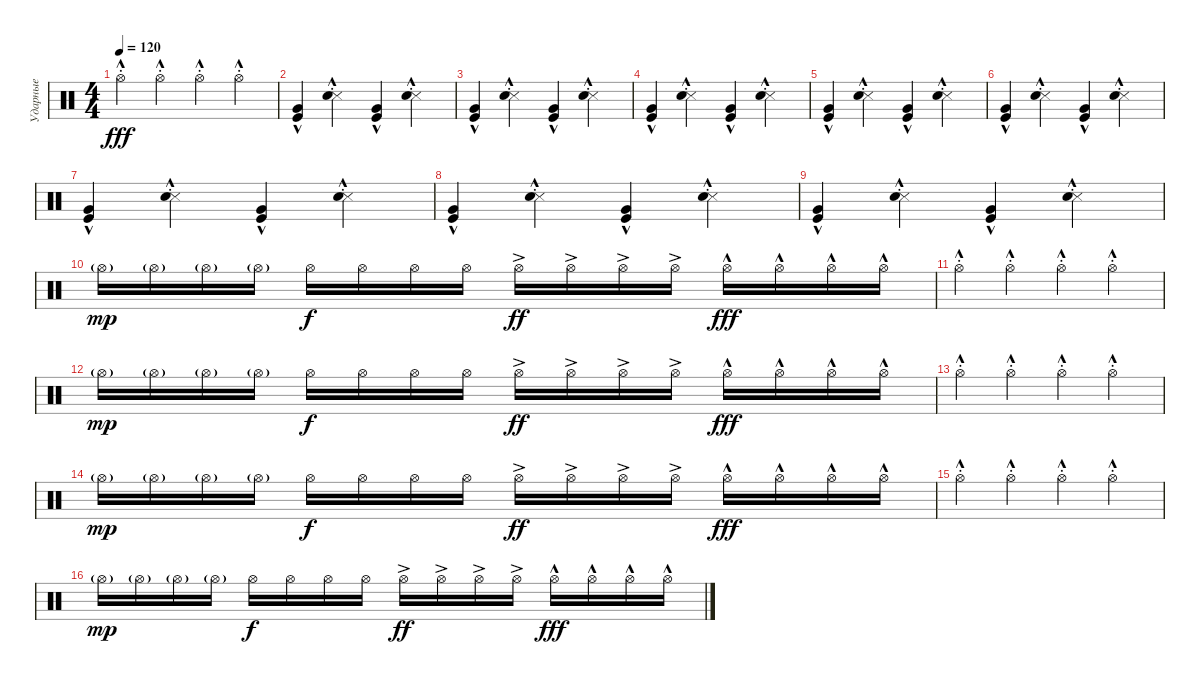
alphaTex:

\track ("Ударные" "Ударные") {instrument percussion}
\staff {score}
\articulation defaults
\ts (4 4)
\tempo 120
\clef neutral
\ks c "Hi-Hat (open)"{hac st}.4{dy fff} "Hi-Hat (open)"{hac st}.4 "Hi-Hat (open)"{hac st}.4 "Hi-Hat (open)"{hac st}.4
|
("Kick (hit)"{hac} "Very Low Tom (hit)"{hac}).4 ("Snare (side stick) 3"{hac st} "Snare (hit) 2"{hac}).4 ("Kick (hit)"{hac} "Very Low Tom (hit)"{hac}).4 ("Snare (side stick) 3"{hac st} "Snare (hit) 2"{hac}).4 |
("Kick (hit)"{hac} "Very Low Tom (hit)"{hac}).4 ("Snare (side stick) 3"{hac st} "Snare (hit) 2"{hac}).4 ("Kick (hit)"{hac} "Very Low Tom (hit)"{hac}).4 ("Snare (side stick) 3"{hac st} "Snare (hit) 2"{hac}).4 |
("Kick (hit)"{hac} "Very Low Tom (hit)"{hac}).4 ("Snare (side stick) 3"{hac st} "Snare (hit) 2"{hac}).4 ("Kick (hit)"{hac} "Very Low Tom (hit)"{hac}).4 ("Snare (side stick) 3"{hac st} "Snare (hit) 2"{hac}).4 |
("Kick (hit)"{hac} "Very Low Tom (hit)"{hac}).4 ("Snare (side stick) 3"{hac st} "Snare (hit) 2"{hac}).4 ("Kick (hit)"{hac} "Very Low Tom (hit)"{hac}).4 ("Snare (side stick) 3"{hac st} "Snare (hit) 2"{hac}).4 |
("Kick (hit)"{hac} "Very Low Tom (hit)"{hac}).4 ("Snare (side stick) 3"{hac st} "Snare (hit) 2"{hac}).4 ("Kick (hit)"{hac} "Very Low Tom (hit)"{hac}).4 ("Snare (side stick) 3"{hac st} "Snare (hit) 2"{hac}).4 |
("Kick (hit)"{hac} "Very Low Tom (hit)"{hac}).4 ("Snare (side stick) 3"{hac st} "Snare (hit) 2"{hac}).4 ("Kick (hit)"{hac} "Very Low Tom (hit)"{hac}).4 ("Snare (side stick) 3"{hac st} "Snare (hit) 2"{hac}).4 |
("Kick (hit)"{hac} "Very Low Tom (hit)"{hac}).4 ("Snare (side stick) 3"{hac st} "Snare (hit) 2"{hac}).4 ("Kick (hit)"{hac} "Very Low Tom (hit)"{hac}).4 ("Snare (side stick) 3"{hac st} "Snare (hit) 2"{hac}).4 |
("Kick (hit)"{hac} "Very Low Tom (hit)"{hac}).4 ("Snare (side stick) 3"{hac st} "Snare (hit) 2"{hac}).4 ("Kick (hit)"{hac} "Very Low Tom (hit)"{hac}).4 ("Snare (side stick) 3"{hac st} "Snare (hit) 2"{hac}).4 |
"Hi-Hat (open)"{g}.16{dy mp} "Hi-Hat (open)"{g}.16 "Hi-Hat (open)"{g}.16 "Hi-Hat (open)"{g}.16 "Hi-Hat (open)".16{dy f} "Hi-Hat (open)".16 "Hi-Hat (open)".16 "Hi-Hat (open)".16 "Hi-Hat (open)"{ac}.16{dy ff} "Hi-Hat (open)"{ac}.16 "Hi-Hat (open)"{ac}.16 "Hi-Hat (open)"{ac}.16 "Hi-Hat (open)"{hac}.16{dy fff} "Hi-Hat (open)"{hac}.16 "Hi-Hat (open)"{hac}.16 "Hi-Hat (open)"{hac}.16 |
"Hi-Hat (open)"{hac st}.4 "Hi-Hat (open)"{hac st}.4 "Hi-Hat (open)"{hac st}.4 "Hi-Hat (open)"{hac st}.4 |
"Hi-Hat (open)"{g}.16{dy mp} "Hi-Hat (open)"{g}.16 "Hi-Hat (open)"{g}.16 "Hi-Hat (open)"{g}.16 "Hi-Hat (open)".16{dy f} "Hi-Hat (open)".16 "Hi-Hat (open)".16 "Hi-Hat (open)".16 "Hi-Hat (open)"{ac}.16{dy ff} "Hi-Hat (open)"{ac}.16 "Hi-Hat (open)"{ac}.16 "Hi-Hat (open)"{ac}.16 "Hi-Hat (open)"{hac}.16{dy fff} "Hi-Hat (open)"{hac}.16 "Hi-Hat (open)"{hac}.16 "Hi-Hat (open)"{hac}.16 |
"Hi-Hat (open)"{hac st}.4 "Hi-Hat (open)"{hac st}.4 "Hi-Hat (open)"{hac st}.4 "Hi-Hat (open)"{hac st}.4 |
"Hi-Hat (open)"{g}.16{dy mp} "Hi-Hat (open)"{g}.16 "Hi-Hat (open)"{g}.16 "Hi-Hat (open)"{g}.16 "Hi-Hat (open)".16{dy f} "Hi-Hat (open)".16 "Hi-Hat (open)".16 "Hi-Hat (open)".16 "Hi-Hat (open)"{ac}.16{dy ff} "Hi-Hat (open)"{ac}.16 "Hi-Hat (open)"{ac}.16 "Hi-Hat (open)"{ac}.16 "Hi-Hat (open)"{hac}.16{dy fff} "Hi-Hat (open)"{hac}.16 "Hi-Hat (open)"{hac}.16 "Hi-Hat (open)"{hac}.16 |
"Hi-Hat (open)"{hac st}.4 "Hi-Hat (open)"{hac st}.4 "Hi-Hat (open)"{hac st}.4 "Hi-Hat (open)"{hac st}.4 |
"Hi-Hat (open)"{g}.16{dy mp} "Hi-Hat (open)"{g}.16 "Hi-Hat (open)"{g}.16 "Hi-Hat (open)"{g}.16 "Hi-Hat (open)".16{dy f} "Hi-Hat (open)".16 "Hi-Hat (open)".16 "Hi-Hat (open)".16 "Hi-Hat (open)"{ac}.16{dy ff} "Hi-Hat (open)"{ac}.16 "Hi-Hat (open)"{ac}.16 "Hi-Hat (open)"{ac}.16 "Hi-Hat (open)"{hac}.16{dy fff} "Hi-Hat (open)"{hac}.16 "Hi-Hat (open)"{hac}.16 "Hi-Hat (open)"{hac}.16
